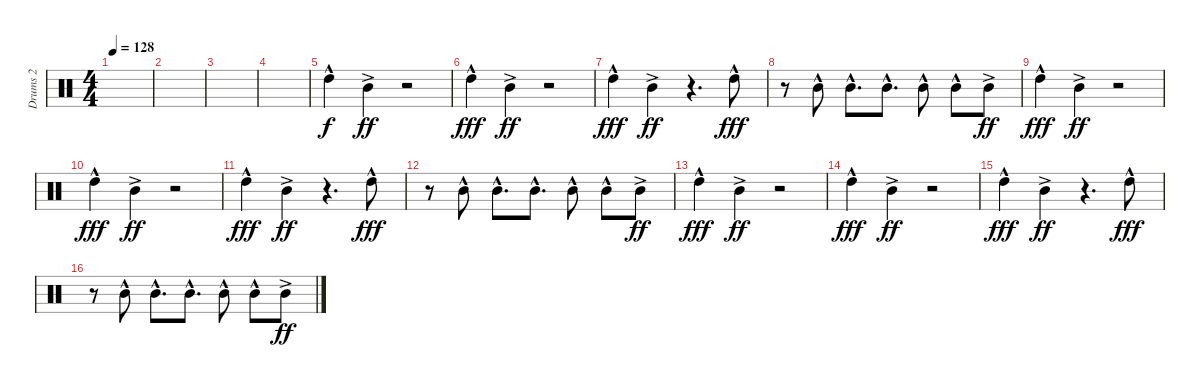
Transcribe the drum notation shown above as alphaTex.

\track ("Drums 2" "Drums 2") {instrument percussion}
\staff {score}
\articulation defaults
\ts (4 4)
\tempo 128
\clef neutral
\ks c
|
|
|
|
"High Tom (hit)"{hac}.4 "Mid Tom (hit)"{ac}.4{dy ff} r.2 |
"High Tom (hit)"{hac}.4{dy fff} "Mid Tom (hit)"{ac}.4{dy ff} r.2 |
"High Tom (hit)"{hac}.4{dy fff} "Mid Tom (hit)"{ac}.4{dy ff} r.4{d} "High Tom (hit)"{hac}.8{dy fff} |
r.8 "Mid Tom (hit)"{hac}.8 "Mid Tom (hit)"{hac}.8{d} "Mid Tom (hit)"{hac}.8{d} "Mid Tom (hit)"{hac}.8 "Mid Tom (hit)"{hac}.8 "Mid Tom (hit)"{ac}.8{dy ff} |
"High Tom (hit)"{hac}.4{dy fff} "Mid Tom (hit)"{ac}.4{dy ff} r.2 |
"High Tom (hit)"{hac}.4{dy fff} "Mid Tom (hit)"{ac}.4{dy ff} r.2 |
"High Tom (hit)"{hac}.4{dy fff} "Mid Tom (hit)"{ac}.4{dy ff} r.4{d} "High Tom (hit)"{hac}.8{dy fff} |
r.8 "Mid Tom (hit)"{hac}.8 "Mid Tom (hit)"{hac}.8{d} "Mid Tom (hit)"{hac}.8{d} "Mid Tom (hit)"{hac}.8 "Mid Tom (hit)"{hac}.8 "Mid Tom (hit)"{ac}.8{dy ff} |
"High Tom (hit)"{hac}.4{dy fff} "Mid Tom (hit)"{ac}.4{dy ff} r.2 |
"High Tom (hit)"{hac}.4{dy fff} "Mid Tom (hit)"{ac}.4{dy ff} r.2 |
"High Tom (hit)"{hac}.4{dy fff} "Mid Tom (hit)"{ac}.4{dy ff} r.4{d} "High Tom (hit)"{hac}.8{dy fff} |
r.8 "Mid Tom (hit)"{hac}.8 "Mid Tom (hit)"{hac}.8{d} "Mid Tom (hit)"{hac}.8{d} "Mid Tom (hit)"{hac}.8 "Mid Tom (hit)"{hac}.8 "Mid Tom (hit)"{ac}.8{dy ff}
